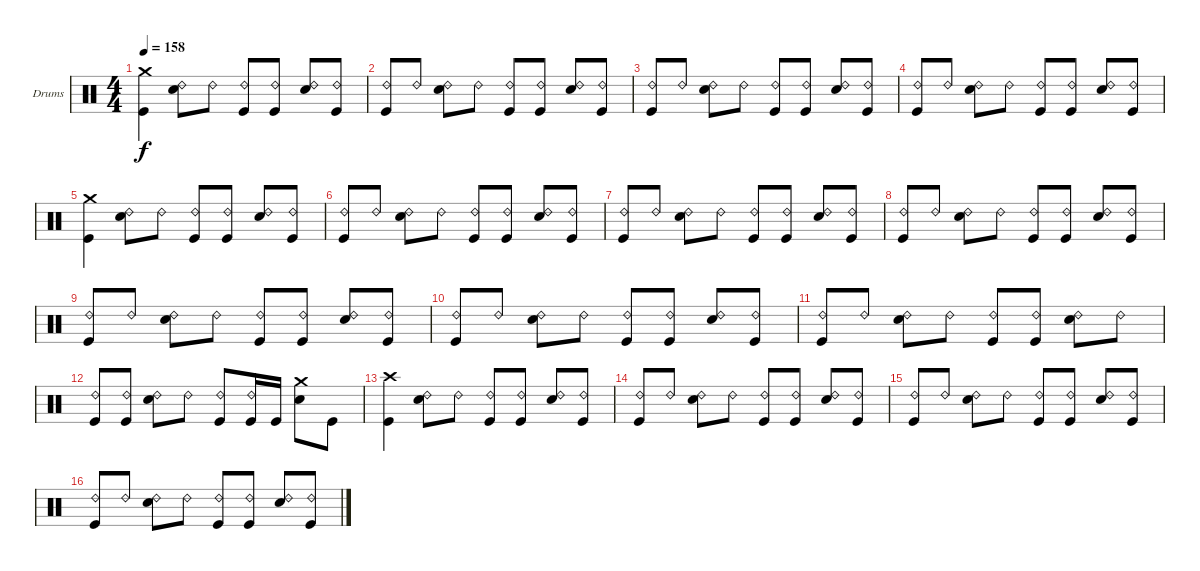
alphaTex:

\bracketExtendMode groupsimilarinstruments
\firstSystemTrackNameOrientation horizontal
\otherSystemsTrackNameOrientation horizontal
\track ("Drumkit" "Drums") {instrument percussion}
\staff {score}
\articulation defaults
\ts (4 4)
\tempo 158
\clef neutral
\ks c
("Crash medium (hit)" "Kick (hit)").4{dy f} ("Ride (bell) 2" "Snare (hit) 2").8 "Ride (bell) 2".8 ("Ride (bell) 2" "Kick (hit)").8 ("Ride (bell) 2" "Kick (hit)").8 ("Ride (bell) 2" "Snare (hit) 2").8 ("Ride (bell) 2" "Kick (hit)").8 |
("Ride (bell) 2" "Kick (hit)").8 "Ride (bell) 2".8 ("Ride (bell) 2" "Snare (hit) 2").8 "Ride (bell) 2".8 ("Ride (bell) 2" "Kick (hit)").8 ("Ride (bell) 2" "Kick (hit)").8 ("Ride (bell) 2" "Snare (hit) 2").8 ("Ride (bell) 2" "Kick (hit)").8 |
("Ride (bell) 2" "Kick (hit)").8 "Ride (bell) 2".8 ("Ride (bell) 2" "Snare (hit) 2").8 "Ride (bell) 2".8 ("Ride (bell) 2" "Kick (hit)").8 ("Ride (bell) 2" "Kick (hit)").8 ("Ride (bell) 2" "Snare (hit) 2").8 ("Ride (bell) 2" "Kick (hit)").8 |
("Ride (bell) 2" "Kick (hit)").8 "Ride (bell) 2".8 ("Ride (bell) 2" "Snare (hit) 2").8 "Ride (bell) 2".8 ("Ride (bell) 2" "Kick (hit)").8 ("Ride (bell) 2" "Kick (hit)").8 ("Ride (bell) 2" "Snare (hit) 2").8 ("Ride (bell) 2" "Kick (hit)").8 |
("Crash medium (hit)" "Kick (hit)").4 ("Ride (bell) 2" "Snare (hit) 2").8 "Ride (bell) 2".8 ("Ride (bell) 2" "Kick (hit)").8 ("Ride (bell) 2" "Kick (hit)").8 ("Ride (bell) 2" "Snare (hit) 2").8 ("Ride (bell) 2" "Kick (hit)").8 |
("Ride (bell) 2" "Kick (hit)").8 "Ride (bell) 2".8 ("Ride (bell) 2" "Snare (hit) 2").8 "Ride (bell) 2".8 ("Ride (bell) 2" "Kick (hit)").8 ("Ride (bell) 2" "Kick (hit)").8 ("Ride (bell) 2" "Snare (hit) 2").8 ("Ride (bell) 2" "Kick (hit)").8 |
("Ride (bell) 2" "Kick (hit)").8 "Ride (bell) 2".8 ("Ride (bell) 2" "Snare (hit) 2").8 "Ride (bell) 2".8 ("Ride (bell) 2" "Kick (hit)").8 ("Ride (bell) 2" "Kick (hit)").8 ("Ride (bell) 2" "Snare (hit) 2").8 ("Ride (bell) 2" "Kick (hit)").8 |
("Ride (bell) 2" "Kick (hit)").8 "Ride (bell) 2".8 ("Ride (bell) 2" "Snare (hit) 2").8 "Ride (bell) 2".8 ("Ride (bell) 2" "Kick (hit)").8 ("Ride (bell) 2" "Kick (hit)").8 ("Ride (bell) 2" "Snare (hit) 2").8 ("Ride (bell) 2" "Kick (hit)").8 |
("Ride (bell) 2" "Kick (hit)").8 "Ride (bell) 2".8 ("Ride (bell) 2" "Snare (hit) 2").8 "Ride (bell) 2".8 ("Ride (bell) 2" "Kick (hit)").8 ("Ride (bell) 2" "Kick (hit)").8 ("Ride (bell) 2" "Snare (hit) 2").8 ("Ride (bell) 2" "Kick (hit)").8 |
("Ride (bell) 2" "Kick (hit)").8 "Ride (bell) 2".8 ("Ride (bell) 2" "Snare (hit) 2").8 "Ride (bell) 2".8 ("Ride (bell) 2" "Kick (hit)").8 ("Ride (bell) 2" "Kick (hit)").8 ("Ride (bell) 2" "Snare (hit) 2").8 ("Ride (bell) 2" "Kick (hit)").8 |
("Ride (bell) 2" "Kick (hit)").8 "Ride (bell) 2".8 ("Ride (bell) 2" "Snare (hit) 2").8 "Ride (bell) 2".8 ("Ride (bell) 2" "Kick (hit)").8 ("Ride (bell) 2" "Kick (hit)").8 ("Ride (bell) 2" "Snare (hit) 2").8 "Ride (bell) 2".8 |
("Ride (bell) 2" "Kick (hit)").8 ("Ride (bell) 2" "Kick (hit)").8 ("Ride (bell) 2" "Snare (hit) 2").8 "Ride (bell) 2".8 ("Ride (bell) 2" "Kick (hit)").8 ("Ride (bell) 2" "Kick (hit)").16 "Kick (hit)".16 ("Crash medium (hit)" "Snare (hit) 2").8 "Kick (hit)".8 |
("Crash high (hit)" "Kick (hit)").4 ("Ride (bell) 2" "Snare (hit) 2").8 "Ride (bell) 2".8 ("Ride (bell) 2" "Kick (hit)").8 ("Ride (bell) 2" "Kick (hit)").8 ("Ride (bell) 2" "Snare (hit) 2").8 ("Ride (bell) 2" "Kick (hit)").8 |
("Ride (bell) 2" "Kick (hit)").8 "Ride (bell) 2".8 ("Ride (bell) 2" "Snare (hit) 2").8 "Ride (bell) 2".8 ("Ride (bell) 2" "Kick (hit)").8 ("Ride (bell) 2" "Kick (hit)").8 ("Ride (bell) 2" "Snare (hit) 2").8 ("Ride (bell) 2" "Kick (hit)").8 |
("Ride (bell) 2" "Kick (hit)").8 "Ride (bell) 2".8 ("Ride (bell) 2" "Snare (hit) 2").8 "Ride (bell) 2".8 ("Ride (bell) 2" "Kick (hit)").8 ("Ride (bell) 2" "Kick (hit)").8 ("Ride (bell) 2" "Snare (hit) 2").8 ("Ride (bell) 2" "Kick (hit)").8 |
("Ride (bell) 2" "Kick (hit)").8 "Ride (bell) 2".8 ("Ride (bell) 2" "Snare (hit) 2").8 "Ride (bell) 2".8 ("Ride (bell) 2" "Kick (hit)").8 ("Ride (bell) 2" "Kick (hit)").8 ("Ride (bell) 2" "Snare (hit) 2").8 ("Ride (bell) 2" "Kick (hit)").8
